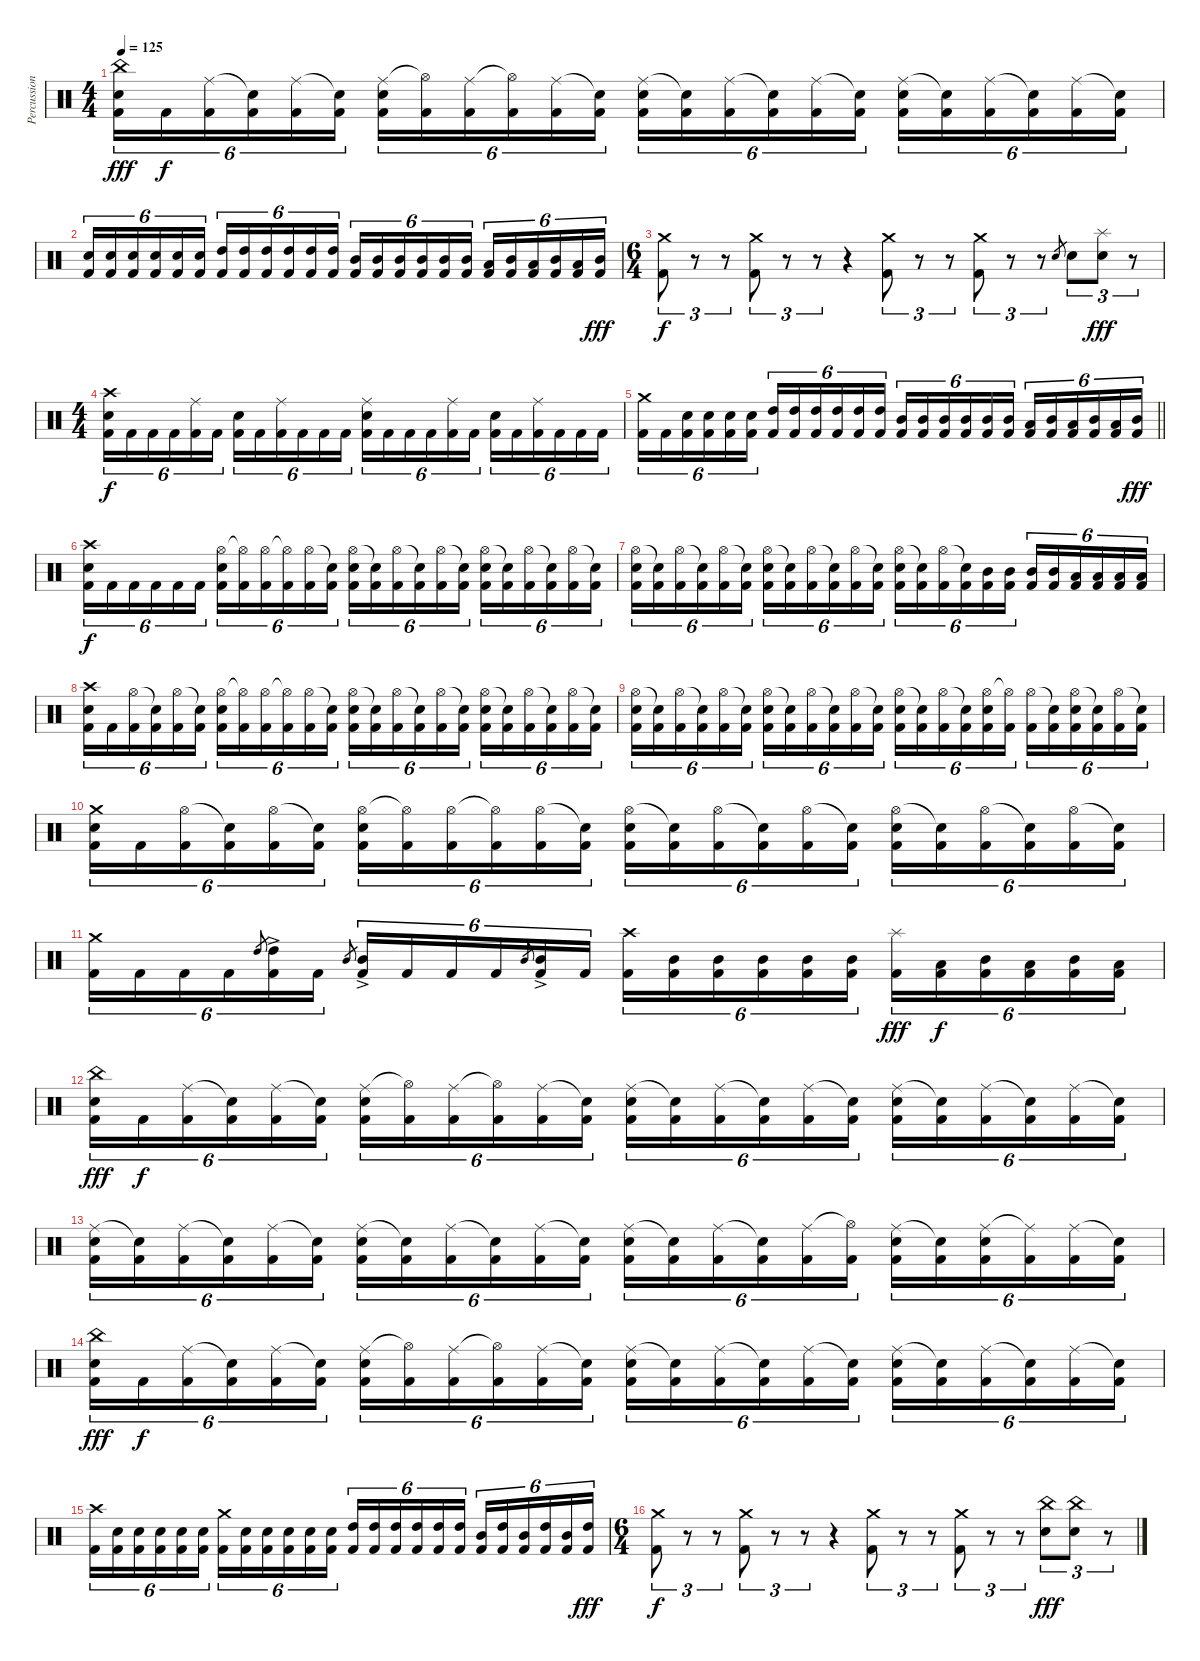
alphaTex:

\track ("Percussion" "Percussion") {instrument percussion}
\staff {score}
\articulation defaults
\ts (4 4)
\tempo 125
\clef neutral
\ks c
("China (hit)" "Snare (hit) 2" "Kick (hit) 2").16{tu (6 4) dy fff} "Kick (hit) 2".16{tu (6 4) dy f} ("Ride (middle)" "Kick (hit) 2").16{tu (6 4)} ("Snare (hit)"{t} "Kick (hit) 2").16{tu (6 4)} ("Ride (middle)" "Kick (hit) 2").16{tu (6 4)} ("Snare (hit)"{t} "Kick (hit) 2").16{tu (6 4)} ("Ride (middle)" "Snare (hit) 2" "Kick (hit) 2").16{tu (6 4)} ("Hi-Hat (open)"{t} "Kick (hit) 2").16{tu (6 4)} ("Ride (middle)" "Kick (hit) 2").16{tu (6 4)} ("Hi-Hat (open)"{t} "Kick (hit) 2").16{tu (6 4)} ("Ride (middle)" "Kick (hit) 2").16{tu (6 4)} ("Snare (hit)"{t} "Kick (hit) 2").16{tu (6 4)} ("Ride (middle)" "Snare (hit) 2" "Kick (hit) 2").16{tu (6 4)} ("Snare (hit)"{t} "Kick (hit) 2").16{tu (6 4)} ("Ride (middle)" "Kick (hit) 2").16{tu (6 4)} ("Snare (hit)"{t} "Kick (hit) 2").16{tu (6 4)} ("Ride (middle)" "Kick (hit) 2").16{tu (6 4)} ("Snare (hit)"{t} "Kick (hit) 2").16{tu (6 4)} ("Ride (middle)" "Snare (hit) 2" "Kick (hit) 2").16{tu (6 4)} ("Snare (hit)"{t} "Kick (hit) 2").16{tu (6 4)} ("Ride (middle)" "Kick (hit) 2").16{tu (6 4)} ("Snare (hit)"{t} "Kick (hit) 2").16{tu (6 4)} ("Ride (middle)" "Kick (hit) 2").16{tu (6 4)} ("Snare (hit)"{t} "Kick (hit) 2").16{tu (6 4)} |
("Snare (hit) 2" "Kick (hit) 2").16{tu (6 4)} ("Snare (hit) 2" "Kick (hit) 2").16{tu (6 4)} ("Snare (hit) 2" "Kick (hit) 2").16{tu (6 4)} ("Snare (hit) 2" "Kick (hit) 2").16{tu (6 4)} ("Snare (hit) 2" "Kick (hit) 2").16{tu (6 4)} ("Snare (hit) 2" "Kick (hit) 2").16{tu (6 4)} ("High Tom (hit)" "Kick (hit) 2").16{tu (6 4)} ("High Tom (hit)" "Kick (hit) 2").16{tu (6 4)} ("High Tom (hit)" "Kick (hit) 2").16{tu (6 4)} ("High Tom (hit)" "Kick (hit) 2").16{tu (6 4)} ("High Tom (hit)" "Kick (hit) 2").16{tu (6 4)} ("High Tom (hit)" "Kick (hit) 2").16{tu (6 4)} ("Mid Tom (hit)" "Kick (hit) 2").16{tu (6 4)} ("Mid Tom (hit)" "Kick (hit) 2").16{tu (6 4)} ("Mid Tom (hit)" "Kick (hit) 2").16{tu (6 4)} ("Mid Tom (hit)" "Kick (hit) 2").16{tu (6 4)} ("Mid Tom (hit)" "Kick (hit) 2").16{tu (6 4)} ("Mid Tom (hit)" "Kick (hit) 2").16{tu (6 4)} ("Low Tom (hit)" "Kick (hit) 2").16{tu (6 4)} ("Mid Tom (hit)" "Kick (hit) 2").16{tu (6 4)} ("Low Tom (hit)" "Kick (hit) 2").16{tu (6 4)} ("Mid Tom (hit)" "Kick (hit) 2").16{tu (6 4)} ("Low Tom (hit)" "Kick (hit) 2").16{tu (6 4)} ("Mid Tom (hit)" "Kick (hit) 2").16{tu (6 4) dy fff} |
\ts (6 4)
("Crash medium (hit)" "Kick (hit) 2").8{tu (3 2) dy f} r.8{tu (3 2)} r.8{tu (3 2)} ("Crash medium (hit)" "Kick (hit) 2").8{tu (3 2)} r.8{tu (3 2)} r.8{tu (3 2) volume 0} r.4 ("Crash medium (hit)" "Kick (hit) 2").8{tu (3 2) volume 15} r.8{tu (3 2)} r.8{tu (3 2)} ("Crash medium (hit)" "Kick (hit) 2").8{tu (3 2)} r.8{tu (3 2)} r.8{tu (3 2)} "Snare (hit) 2".8{gr} "Snare (hit) 2".8{tu (3 2)} ("Splash (hit)" "Snare (hit) 2").8{tu (3 2) dy fff} r.8{tu (3 2)} |
\ts (4 4)
("Crash high (hit)" "Snare (hit) 2" "Kick (hit) 2").16{tu (6 4) dy f} "Kick (hit) 2".16{tu (6 4)} "Kick (hit) 2".16{tu (6 4)} "Kick (hit) 2".16{tu (6 4)} ("Ride (middle)" "Kick (hit) 2").16{tu (6 4)} "Kick (hit) 2".16{tu (6 4)} ("Snare (hit) 2" "Kick (hit) 2").16{tu (6 4)} "Kick (hit) 2".16{tu (6 4)} ("Ride (middle)" "Kick (hit) 2").16{tu (6 4)} "Kick (hit) 2".16{tu (6 4)} "Kick (hit) 2".16{tu (6 4)} "Kick (hit) 2".16{tu (6 4)} ("Ride (middle)" "Snare (hit) 2" "Kick (hit) 2").16{tu (6 4)} "Kick (hit) 2".16{tu (6 4)} "Kick (hit) 2".16{tu (6 4)} "Kick (hit) 2".16{tu (6 4)} ("Ride (middle)" "Kick (hit) 2").16{tu (6 4)} "Kick (hit) 2".16{tu (6 4)} ("Snare (hit) 2" "Kick (hit) 2").16{tu (6 4)} "Kick (hit) 2".16{tu (6 4)} ("Ride (middle)" "Kick (hit) 2").16{tu (6 4)} "Kick (hit) 2".16{tu (6 4)} "Kick (hit) 2".16{tu (6 4)} "Kick (hit) 2".16{tu (6 4)} |
\barLineRight lightlight
("Crash medium (hit)" "Kick (hit) 2").16{tu (6 4)} "Kick (hit) 2".16{tu (6 4)} ("Snare (hit) 2" "Kick (hit) 2").16{tu (6 4)} ("Snare (hit) 2" "Kick (hit) 2").16{tu (6 4)} ("Snare (hit) 2" "Kick (hit) 2").16{tu (6 4)} ("Snare (hit) 2" "Kick (hit) 2").16{tu (6 4)} ("High Tom (hit)" "Kick (hit) 2").16{tu (6 4)} ("High Tom (hit)" "Kick (hit) 2").16{tu (6 4)} ("High Tom (hit)" "Kick (hit) 2").16{tu (6 4)} ("High Tom (hit)" "Kick (hit) 2").16{tu (6 4)} ("High Tom (hit)" "Kick (hit) 2").16{tu (6 4)} ("High Tom (hit)" "Kick (hit) 2").16{tu (6 4)} ("Mid Tom (hit)" "Kick (hit) 2").16{tu (6 4)} ("Mid Tom (hit)" "Kick (hit) 2").16{tu (6 4)} ("Mid Tom (hit)" "Kick (hit) 2").16{tu (6 4)} ("Mid Tom (hit)" "Kick (hit) 2").16{tu (6 4)} ("Mid Tom (hit)" "Kick (hit) 2").16{tu (6 4)} ("Mid Tom (hit)" "Kick (hit) 2").16{tu (6 4)} ("Low Tom (hit)" "Kick (hit) 2").16{tu (6 4)} ("Mid Tom (hit)" "Kick (hit) 2").16{tu (6 4)} ("Low Tom (hit)" "Kick (hit) 2").16{tu (6 4)} ("Mid Tom (hit)" "Kick (hit) 2").16{tu (6 4)} ("Low Tom (hit)" "Kick (hit) 2").16{tu (6 4)} ("Mid Tom (hit)" "Kick (hit) 2").16{tu (6 4) dy fff} |
("Crash high (hit)" "Snare (hit) 2" "Kick (hit) 2").16{tu (6 4) dy f} "Kick (hit) 2".16{tu (6 4)} "Kick (hit) 2".16{tu (6 4)} "Kick (hit) 2".16{tu (6 4)} "Kick (hit) 2".16{tu (6 4)} "Kick (hit) 2".16{tu (6 4)} ("Hi-Hat (open)" "Snare (hit) 2" "Kick (hit) 2").16{tu (6 4)} ("Hi-Hat (open)"{t} "Kick (hit) 2").16{tu (6 4)} ("Hi-Hat (open)" "Kick (hit) 2").16{tu (6 4)} ("Hi-Hat (open)"{t} "Kick (hit) 2").16{tu (6 4)} ("Hi-Hat (open)" "Kick (hit) 2").16{tu (6 4)} ("Snare (hit)"{t} "Kick (hit) 2").16{tu (6 4)} ("Hi-Hat (open)" "Snare (hit) 2" "Kick (hit) 2").16{tu (6 4)} ("Snare (hit)"{t} "Kick (hit) 2").16{tu (6 4)} ("Hi-Hat (open)" "Kick (hit) 2").16{tu (6 4)} ("Snare (hit)"{t} "Kick (hit) 2").16{tu (6 4)} ("Hi-Hat (open)" "Kick (hit) 2").16{tu (6 4)} ("Snare (hit)"{t} "Kick (hit) 2").16{tu (6 4)} ("Hi-Hat (open)" "Snare (hit) 2" "Kick (hit) 2").16{tu (6 4)} ("Snare (hit)"{t} "Kick (hit) 2").16{tu (6 4)} ("Hi-Hat (open)" "Kick (hit) 2").16{tu (6 4)} ("Snare (hit)"{t} "Kick (hit) 2").16{tu (6 4)} ("Hi-Hat (open)" "Kick (hit) 2").16{tu (6 4)} ("Snare (hit)"{t} "Kick (hit) 2").16{tu (6 4)} |
("Hi-Hat (open)" "Snare (hit) 2" "Kick (hit) 2").16{tu (6 4)} ("Snare (hit)"{t} "Kick (hit) 2").16{tu (6 4)} ("Hi-Hat (open)" "Kick (hit) 2").16{tu (6 4)} ("Snare (hit)"{t} "Kick (hit) 2").16{tu (6 4)} ("Hi-Hat (open)" "Kick (hit) 2").16{tu (6 4)} ("Snare (hit)"{t} "Kick (hit) 2").16{tu (6 4)} ("Hi-Hat (open)" "Snare (hit) 2" "Kick (hit) 2").16{tu (6 4)} ("Snare (hit)"{t} "Kick (hit) 2").16{tu (6 4)} ("Hi-Hat (open)" "Kick (hit) 2").16{tu (6 4)} ("Snare (hit)"{t} "Kick (hit) 2").16{tu (6 4)} ("Hi-Hat (open)" "Kick (hit) 2").16{tu (6 4)} ("Snare (hit)"{t} "Kick (hit) 2").16{tu (6 4)} ("Hi-Hat (open)" "Snare (hit) 2" "Kick (hit) 2").16{tu (6 4)} ("Snare (hit)"{t} "Kick (hit) 2").16{tu (6 4)} ("Hi-Hat (open)" "Kick (hit) 2").16{tu (6 4)} ("Snare (hit)"{t} "Kick (hit) 2").16{tu (6 4)} ("Mid Tom (hit)" "Kick (hit) 2").16{tu (6 4)} ("Mid Tom (hit)" "Kick (hit) 2").16{tu (6 4)} ("Mid Tom (hit)" "Kick (hit) 2").16{tu (6 4)} ("Mid Tom (hit)" "Kick (hit) 2").16{tu (6 4)} ("Low Tom (hit)" "Kick (hit) 2").16{tu (6 4)} ("Low Tom (hit)" "Kick (hit) 2").16{tu (6 4)} ("Low Tom (hit)" "Kick (hit) 2").16{tu (6 4)} ("Low Tom (hit)" "Kick (hit) 2").16{tu (6 4)} |
("Crash high (hit)" "Snare (hit) 2" "Kick (hit) 2").16{tu (6 4)} "Kick (hit) 2".16{tu (6 4)} ("Hi-Hat (open)" "Kick (hit) 2").16{tu (6 4)} ("Snare (hit)"{t} "Kick (hit) 2").16{tu (6 4)} ("Hi-Hat (open)" "Kick (hit) 2").16{tu (6 4)} ("Snare (hit)"{t} "Kick (hit) 2").16{tu (6 4)} ("Hi-Hat (open)" "Snare (hit) 2" "Kick (hit) 2").16{tu (6 4)} ("Hi-Hat (open)"{t} "Kick (hit) 2").16{tu (6 4)} ("Hi-Hat (open)" "Kick (hit) 2").16{tu (6 4)} ("Hi-Hat (open)"{t} "Kick (hit) 2").16{tu (6 4)} ("Hi-Hat (open)" "Kick (hit) 2").16{tu (6 4)} ("Snare (hit)"{t} "Kick (hit) 2").16{tu (6 4)} ("Hi-Hat (open)" "Snare (hit) 2" "Kick (hit) 2").16{tu (6 4)} ("Snare (hit)"{t} "Kick (hit) 2").16{tu (6 4)} ("Hi-Hat (open)" "Kick (hit) 2").16{tu (6 4)} ("Snare (hit)"{t} "Kick (hit) 2").16{tu (6 4)} ("Hi-Hat (open)" "Kick (hit) 2").16{tu (6 4)} ("Snare (hit)"{t} "Kick (hit) 2").16{tu (6 4)} ("Hi-Hat (open)" "Snare (hit) 2" "Kick (hit) 2").16{tu (6 4)} ("Snare (hit)"{t} "Kick (hit) 2").16{tu (6 4)} ("Hi-Hat (open)" "Kick (hit) 2").16{tu (6 4)} ("Snare (hit)"{t} "Kick (hit) 2").16{tu (6 4)} ("Hi-Hat (open)" "Kick (hit) 2").16{tu (6 4)} ("Snare (hit)"{t} "Kick (hit) 2").16{tu (6 4)} |
("Hi-Hat (open)" "Snare (hit) 2" "Kick (hit) 2").16{tu (6 4)} ("Snare (hit)"{t} "Kick (hit) 2").16{tu (6 4)} ("Hi-Hat (open)" "Kick (hit) 2").16{tu (6 4)} ("Snare (hit)"{t} "Kick (hit) 2").16{tu (6 4)} ("Hi-Hat (open)" "Kick (hit) 2").16{tu (6 4)} ("Snare (hit)"{t} "Kick (hit) 2").16{tu (6 4)} ("Hi-Hat (open)" "Snare (hit) 2" "Kick (hit) 2").16{tu (6 4)} ("Snare (hit)"{t} "Kick (hit) 2").16{tu (6 4)} ("Hi-Hat (open)" "Kick (hit) 2").16{tu (6 4)} ("Snare (hit)"{t} "Kick (hit) 2").16{tu (6 4)} ("Hi-Hat (open)" "Kick (hit) 2").16{tu (6 4)} ("Snare (hit)"{t} "Kick (hit) 2").16{tu (6 4)} ("Hi-Hat (open)" "Snare (hit) 2" "Kick (hit) 2").16{tu (6 4)} ("Snare (hit)"{t} "Kick (hit) 2").16{tu (6 4)} ("Hi-Hat (open)" "Kick (hit) 2").16{tu (6 4)} ("Snare (hit)"{t} "Kick (hit) 2").16{tu (6 4)} ("Hi-Hat (open)" "Snare (hit) 2" "Kick (hit) 2").16{tu (6 4)} ("Hi-Hat (open)"{t} "Kick (hit) 2").16{tu (6 4)} ("Hi-Hat (open)" "Kick (hit) 2").16{tu (6 4)} ("Snare (hit)"{t} "Kick (hit) 2").16{tu (6 4)} ("Hi-Hat (open)" "Snare (hit) 2" "Kick (hit) 2").16{tu (6 4)} ("Snare (hit)"{t} "Kick (hit) 2").16{tu (6 4)} ("Hi-Hat (open)" "Kick (hit) 2").16{tu (6 4)} ("Snare (hit)"{t} "Kick (hit) 2").16{tu (6 4)} |
("Crash medium (hit)" "Snare (hit) 2" "Kick (hit) 2").16{tu (6 4)} "Kick (hit) 2".16{tu (6 4)} ("Hi-Hat (open)" "Kick (hit) 2").16{tu (6 4)} ("Snare (hit)"{t} "Kick (hit) 2").16{tu (6 4)} ("Hi-Hat (open)" "Kick (hit) 2").16{tu (6 4)} ("Snare (hit)"{t} "Kick (hit) 2").16{tu (6 4)} ("Hi-Hat (open)" "Snare (hit) 2" "Kick (hit) 2").16{tu (6 4)} ("Hi-Hat (open)"{t} "Kick (hit) 2").16{tu (6 4)} ("Hi-Hat (open)" "Kick (hit) 2").16{tu (6 4)} ("Hi-Hat (open)"{t} "Kick (hit) 2").16{tu (6 4)} ("Hi-Hat (open)" "Kick (hit) 2").16{tu (6 4)} ("Snare (hit)"{t} "Kick (hit) 2").16{tu (6 4)} ("Hi-Hat (open)" "Snare (hit) 2" "Kick (hit) 2").16{tu (6 4)} ("Snare (hit)"{t} "Kick (hit) 2").16{tu (6 4)} ("Hi-Hat (open)" "Kick (hit) 2").16{tu (6 4)} ("Snare (hit)"{t} "Kick (hit) 2").16{tu (6 4)} ("Hi-Hat (open)" "Kick (hit) 2").16{tu (6 4)} ("Snare (hit)"{t} "Kick (hit) 2").16{tu (6 4)} ("Hi-Hat (open)" "Snare (hit) 2" "Kick (hit) 2").16{tu (6 4)} ("Snare (hit)"{t} "Kick (hit) 2").16{tu (6 4)} ("Hi-Hat (open)" "Kick (hit) 2").16{tu (6 4)} ("Snare (hit)"{t} "Kick (hit) 2").16{tu (6 4)} ("Hi-Hat (open)" "Kick (hit) 2").16{tu (6 4)} ("Snare (hit)"{t} "Kick (hit) 2").16{tu (6 4)} |
("Crash medium (hit)" "Kick (hit) 2").16{tu (6 4)} "Kick (hit) 2".16{tu (6 4)} "Kick (hit) 2".16{tu (6 4)} "Kick (hit) 2".16{tu (6 4)} "High Tom (hit)".8{gr} ("High Tom (hit)"{ac} "Kick (hit) 2").16{tu (6 4)} "Kick (hit) 2".16{tu (6 4)} "Mid Tom (hit)".8{gr} ("Mid Tom (hit)"{ac} "Kick (hit) 2").16{tu (6 4)} "Kick (hit) 2".16{tu (6 4)} "Kick (hit) 2".16{tu (6 4)} "Kick (hit) 2".16{tu (6 4)} "Mid Tom (hit)".8{gr} ("Mid Tom (hit)"{ac} "Kick (hit) 2").16{tu (6 4)} "Kick (hit) 2".16{tu (6 4)} ("Crash high (hit)" "Kick (hit) 2").16{tu (6 4)} ("Mid Tom (hit)" "Kick (hit) 2").16{tu (6 4)} ("Mid Tom (hit)" "Kick (hit) 2").16{tu (6 4)} ("Mid Tom (hit)" "Kick (hit) 2").16{tu (6 4)} ("Mid Tom (hit)" "Kick (hit) 2").16{tu (6 4)} ("Mid Tom (hit)" "Kick (hit) 2").16{tu (6 4)} ("Splash (hit)" "Kick (hit) 2").16{tu (6 4) dy fff} ("Low Tom (hit)" "Kick (hit) 2").16{tu (6 4) dy f} ("Mid Tom (hit)" "Kick (hit) 2").16{tu (6 4)} ("Low Tom (hit)" "Kick (hit) 2").16{tu (6 4)} ("Mid Tom (hit)" "Kick (hit) 2").16{tu (6 4)} ("Low Tom (hit)" "Kick (hit) 2").16{tu (6 4)} |
("China (hit)" "Snare (hit) 2" "Kick (hit) 2").16{tu (6 4) dy fff} "Kick (hit) 2".16{tu (6 4) dy f} ("Ride (middle)" "Kick (hit) 2").16{tu (6 4)} ("Snare (hit)"{t} "Kick (hit) 2").16{tu (6 4)} ("Ride (middle)" "Kick (hit) 2").16{tu (6 4)} ("Snare (hit)"{t} "Kick (hit) 2").16{tu (6 4)} ("Ride (middle)" "Snare (hit) 2" "Kick (hit) 2").16{tu (6 4)} ("Hi-Hat (open)"{t} "Kick (hit) 2").16{tu (6 4)} ("Ride (middle)" "Kick (hit) 2").16{tu (6 4)} ("Hi-Hat (open)"{t} "Kick (hit) 2").16{tu (6 4)} ("Ride (middle)" "Kick (hit) 2").16{tu (6 4)} ("Snare (hit)"{t} "Kick (hit) 2").16{tu (6 4)} ("Ride (middle)" "Snare (hit) 2" "Kick (hit) 2").16{tu (6 4)} ("Snare (hit)"{t} "Kick (hit) 2").16{tu (6 4)} ("Ride (middle)" "Kick (hit) 2").16{tu (6 4)} ("Snare (hit)"{t} "Kick (hit) 2").16{tu (6 4)} ("Ride (middle)" "Kick (hit) 2").16{tu (6 4)} ("Snare (hit)"{t} "Kick (hit) 2").16{tu (6 4)} ("Ride (middle)" "Snare (hit) 2" "Kick (hit) 2").16{tu (6 4)} ("Snare (hit)"{t} "Kick (hit) 2").16{tu (6 4)} ("Ride (middle)" "Kick (hit) 2").16{tu (6 4)} ("Snare (hit)"{t} "Kick (hit) 2").16{tu (6 4)} ("Ride (middle)" "Kick (hit) 2").16{tu (6 4)} ("Snare (hit)"{t} "Kick (hit) 2").16{tu (6 4)} |
("Ride (middle)" "Snare (hit) 2" "Kick (hit) 2").16{tu (6 4)} ("Snare (hit)"{t} "Kick (hit) 2").16{tu (6 4)} ("Ride (middle)" "Kick (hit) 2").16{tu (6 4)} ("Snare (hit)"{t} "Kick (hit) 2").16{tu (6 4)} ("Ride (middle)" "Kick (hit) 2").16{tu (6 4)} ("Snare (hit)"{t} "Kick (hit) 2").16{tu (6 4)} ("Ride (middle)" "Snare (hit) 2" "Kick (hit) 2").16{tu (6 4)} ("Snare (hit)"{t} "Kick (hit) 2").16{tu (6 4)} ("Ride (middle)" "Kick (hit) 2").16{tu (6 4)} ("Snare (hit)"{t} "Kick (hit) 2").16{tu (6 4)} ("Ride (middle)" "Kick (hit) 2").16{tu (6 4)} ("Snare (hit)"{t} "Kick (hit) 2").16{tu (6 4)} ("Ride (middle)" "Snare (hit) 2" "Kick (hit) 2").16{tu (6 4)} ("Snare (hit)"{t} "Kick (hit) 2").16{tu (6 4)} ("Ride (middle)" "Kick (hit) 2").16{tu (6 4)} ("Snare (hit)"{t} "Kick (hit) 2").16{tu (6 4)} ("Ride (middle)" "Kick (hit) 2").16{tu (6 4)} ("Hi-Hat (open)"{t} "Kick (hit) 2").16{tu (6 4)} ("Ride (middle)" "Snare (hit) 2" "Kick (hit) 2").16{tu (6 4)} ("Snare (hit)"{t} "Kick (hit) 2").16{tu (6 4)} ("Ride (middle)" "Snare (hit) 2" "Kick (hit) 2").16{tu (6 4)} ("Ride (middle)"{t} "Kick (hit) 2").16{tu (6 4)} ("Ride (middle)" "Kick (hit) 2").16{tu (6 4)} ("Snare (hit)"{t} "Kick (hit) 2").16{tu (6 4)} |
("China (hit)" "Snare (hit) 2" "Kick (hit) 2").16{tu (6 4) dy fff} "Kick (hit) 2".16{tu (6 4) dy f} ("Ride (middle)" "Kick (hit) 2").16{tu (6 4)} ("Snare (hit)"{t} "Kick (hit) 2").16{tu (6 4)} ("Ride (middle)" "Kick (hit) 2").16{tu (6 4)} ("Snare (hit)"{t} "Kick (hit) 2").16{tu (6 4)} ("Ride (middle)" "Snare (hit) 2" "Kick (hit) 2").16{tu (6 4)} ("Hi-Hat (open)"{t} "Kick (hit) 2").16{tu (6 4)} ("Ride (middle)" "Kick (hit) 2").16{tu (6 4)} ("Hi-Hat (open)"{t} "Kick (hit) 2").16{tu (6 4)} ("Ride (middle)" "Kick (hit) 2").16{tu (6 4)} ("Snare (hit)"{t} "Kick (hit) 2").16{tu (6 4)} ("Ride (middle)" "Snare (hit) 2" "Kick (hit) 2").16{tu (6 4)} ("Snare (hit)"{t} "Kick (hit) 2").16{tu (6 4)} ("Ride (middle)" "Kick (hit) 2").16{tu (6 4)} ("Snare (hit)"{t} "Kick (hit) 2").16{tu (6 4)} ("Ride (middle)" "Kick (hit) 2").16{tu (6 4)} ("Snare (hit)"{t} "Kick (hit) 2").16{tu (6 4)} ("Ride (middle)" "Snare (hit) 2" "Kick (hit) 2").16{tu (6 4)} ("Snare (hit)"{t} "Kick (hit) 2").16{tu (6 4)} ("Ride (middle)" "Kick (hit) 2").16{tu (6 4)} ("Snare (hit)"{t} "Kick (hit) 2").16{tu (6 4)} ("Ride (middle)" "Kick (hit) 2").16{tu (6 4)} ("Snare (hit)"{t} "Kick (hit) 2").16{tu (6 4)} |
("Crash high (hit)" "Kick (hit) 2").16{tu (6 4)} ("Snare (hit) 2" "Kick (hit) 2").16{tu (6 4)} ("Snare (hit) 2" "Kick (hit) 2").16{tu (6 4)} ("Snare (hit) 2" "Kick (hit) 2").16{tu (6 4)} ("Snare (hit) 2" "Kick (hit) 2").16{tu (6 4)} ("Snare (hit) 2" "Kick (hit) 2").16{tu (6 4)} ("Crash medium (hit)" "Kick (hit) 2").16{tu (6 4)} ("Snare (hit) 2" "Kick (hit) 2").16{tu (6 4)} ("Snare (hit) 2" "Kick (hit) 2").16{tu (6 4)} ("Snare (hit) 2" "Kick (hit) 2").16{tu (6 4)} ("Snare (hit) 2" "Kick (hit) 2").16{tu (6 4)} ("Snare (hit) 2" "Kick (hit) 2").16{tu (6 4)} ("High Tom (hit)" "Kick (hit) 2").16{tu (6 4)} ("High Tom (hit)" "Kick (hit) 2").16{tu (6 4)} ("High Tom (hit)" "Kick (hit) 2").16{tu (6 4)} ("High Tom (hit)" "Kick (hit) 2").16{tu (6 4)} ("High Tom (hit)" "Kick (hit) 2").16{tu (6 4)} ("High Tom (hit)" "Kick (hit) 2").16{tu (6 4)} ("Mid Tom (hit)" "Kick (hit) 2").16{tu (6 4)} ("High Tom (hit)" "Kick (hit) 2").16{tu (6 4)} ("Mid Tom (hit)" "Kick (hit) 2").16{tu (6 4)} ("High Tom (hit)" "Kick (hit) 2").16{tu (6 4)} ("Mid Tom (hit)" "Kick (hit) 2").16{tu (6 4)} ("High Tom (hit)" "Kick (hit) 2").16{tu (6 4) dy fff} |
\ts (6 4)
("Crash medium (hit)" "Kick (hit) 2").8{tu (3 2) dy f} r.8{tu (3 2)} r.8{tu (3 2)} ("Crash medium (hit)" "Kick (hit) 2").8{tu (3 2)} r.8{tu (3 2)} r.8{tu (3 2) volume 0} r.4 ("Crash medium (hit)" "Kick (hit) 2").8{tu (3 2) volume 15} r.8{tu (3 2)} r.8{tu (3 2)} ("Crash medium (hit)" "Kick (hit) 2").8{tu (3 2)} r.8{tu (3 2)} r.8{tu (3 2)} ("China (hit)" "Snare (hit) 2").8{tu (3 2) dy fff} ("China (hit)" "Snare (hit) 2").8{tu (3 2)} r.8{tu (3 2)}
